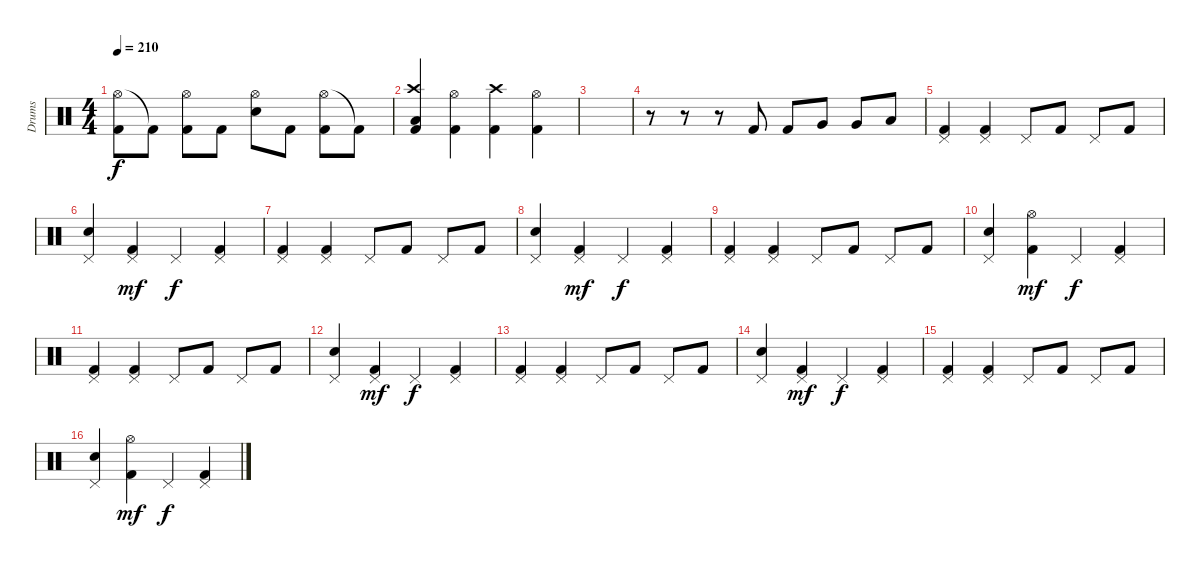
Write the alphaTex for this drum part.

\track ("Drums" "Drums") {instrument percussion}
\staff {score}
\articulation defaults
\ts (4 4)
\tempo 210
\clef neutral
\ks c
("Hi-Hat (open)" "Kick (hit) 2").8{dy f} "Kick (hit) 2"{t}.8 ("Hi-Hat (open)" "Kick (hit) 2").8 "Kick (hit) 2".8 ("Hi-Hat (open)" "Electric Snare (hit)").8 "Kick (hit) 2".8 ("Hi-Hat (open)" "Kick (hit) 2").8 "Kick (hit) 2"{t}.8 |
("Crash high (hit)" "Low Tom (hit)" "Kick (hit) 2").4 ("Hi-Hat (open)" "Kick (hit) 2").4 ("Crash high (hit)" "Kick (hit) 2").4 ("Hi-Hat (open)" "Kick (hit) 2").4 |
|
r.8 r.8 r.8 "Kick (hit) 2".8 "Kick (hit) 2".8 "Very Low Tom (hit)".8 "Very Low Tom (hit)".8 "Low Tom (hit)".8 |
("Pedal Hi-Hat (hit)" "Kick (hit) 2").4 ("Pedal Hi-Hat (hit)" "Kick (hit) 2").4 "Pedal Hi-Hat (hit)".8 "Kick (hit) 2".8 "Pedal Hi-Hat (hit)".8 "Kick (hit) 2".8 |
("Pedal Hi-Hat (hit)" "Electric Snare (hit)").4 ("Pedal Hi-Hat (hit)" "Kick (hit) 2").4{dy mf} "Pedal Hi-Hat (hit)".4{dy f} ("Pedal Hi-Hat (hit)" "Kick (hit) 2").4 |
("Pedal Hi-Hat (hit)" "Kick (hit) 2").4 ("Pedal Hi-Hat (hit)" "Kick (hit) 2").4 "Pedal Hi-Hat (hit)".8 "Kick (hit) 2".8 "Pedal Hi-Hat (hit)".8 "Kick (hit) 2".8 |
("Pedal Hi-Hat (hit)" "Electric Snare (hit)").4 ("Pedal Hi-Hat (hit)" "Kick (hit) 2").4{dy mf} "Pedal Hi-Hat (hit)".4{dy f} ("Pedal Hi-Hat (hit)" "Kick (hit) 2").4 |
("Pedal Hi-Hat (hit)" "Kick (hit) 2").4 ("Pedal Hi-Hat (hit)" "Kick (hit) 2").4 "Pedal Hi-Hat (hit)".8 "Kick (hit) 2".8 "Pedal Hi-Hat (hit)".8 "Kick (hit) 2".8 |
("Pedal Hi-Hat (hit)" "Electric Snare (hit)").4 ("Hi-Hat (open)" "Kick (hit) 2").4{dy mf} "Pedal Hi-Hat (hit)".4{dy f} ("Pedal Hi-Hat (hit)" "Kick (hit) 2").4 |
("Pedal Hi-Hat (hit)" "Kick (hit) 2").4 ("Pedal Hi-Hat (hit)" "Kick (hit) 2").4 "Pedal Hi-Hat (hit)".8 "Kick (hit) 2".8 "Pedal Hi-Hat (hit)".8 "Kick (hit) 2".8 |
("Pedal Hi-Hat (hit)" "Electric Snare (hit)").4 ("Pedal Hi-Hat (hit)" "Kick (hit) 2").4{dy mf} "Pedal Hi-Hat (hit)".4{dy f} ("Pedal Hi-Hat (hit)" "Kick (hit) 2").4 |
("Pedal Hi-Hat (hit)" "Kick (hit) 2").4 ("Pedal Hi-Hat (hit)" "Kick (hit) 2").4 "Pedal Hi-Hat (hit)".8 "Kick (hit) 2".8 "Pedal Hi-Hat (hit)".8 "Kick (hit) 2".8 |
("Pedal Hi-Hat (hit)" "Electric Snare (hit)").4 ("Pedal Hi-Hat (hit)" "Kick (hit) 2").4{dy mf} "Pedal Hi-Hat (hit)".4{dy f} ("Pedal Hi-Hat (hit)" "Kick (hit) 2").4 |
("Pedal Hi-Hat (hit)" "Kick (hit) 2").4 ("Pedal Hi-Hat (hit)" "Kick (hit) 2").4 "Pedal Hi-Hat (hit)".8 "Kick (hit) 2".8 "Pedal Hi-Hat (hit)".8 "Kick (hit) 2".8 |
("Pedal Hi-Hat (hit)" "Electric Snare (hit)").4 ("Hi-Hat (open)" "Kick (hit) 2").4{dy mf} "Pedal Hi-Hat (hit)".4{dy f} ("Pedal Hi-Hat (hit)" "Kick (hit) 2").4
